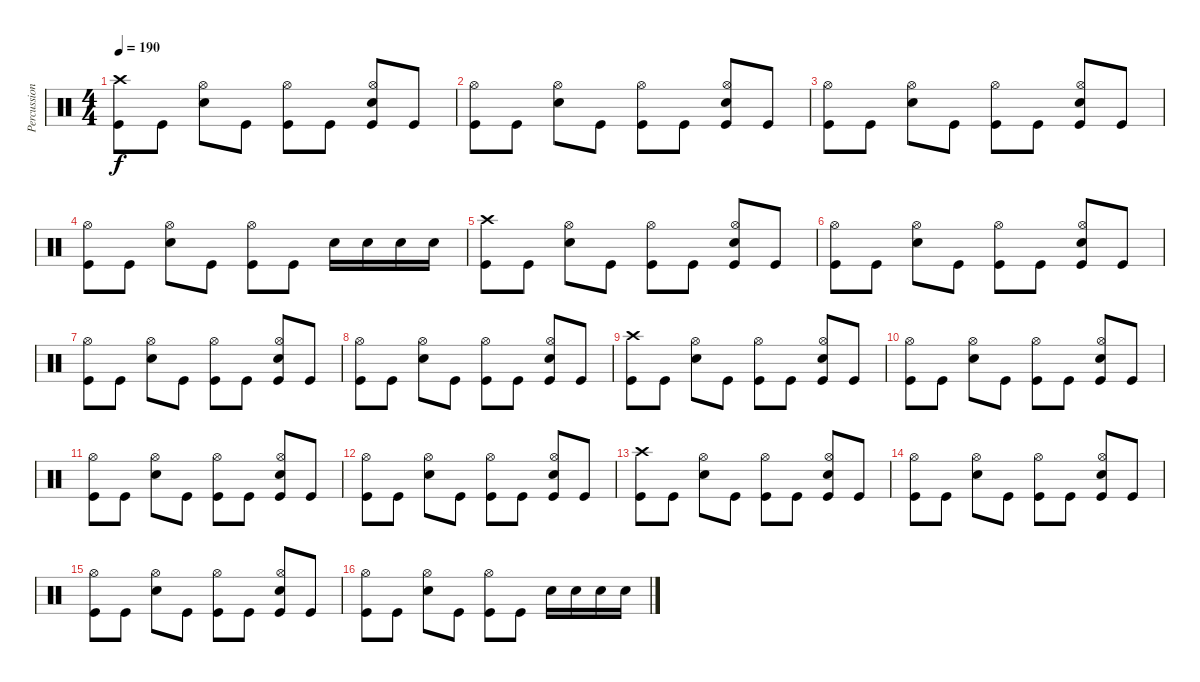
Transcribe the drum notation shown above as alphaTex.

\track ("Percussion" "Percussion") {instrument percussion}
\staff {score}
\articulation defaults
\ts (4 4)
\tempo 190
\clef neutral
\ks c
("Crash high (hit)" "Kick (hit)").8{dy f} "Kick (hit)".8 ("Hi-Hat (open)" "Snare (hit) 2").8 "Kick (hit)".8 ("Hi-Hat (open)" "Kick (hit)").8 "Kick (hit)".8 ("Hi-Hat (open)" "Snare (hit) 2" "Kick (hit)").8 "Kick (hit)".8 |
("Hi-Hat (open)" "Kick (hit)").8 "Kick (hit)".8 ("Hi-Hat (open)" "Snare (hit) 2").8 "Kick (hit)".8 ("Hi-Hat (open)" "Kick (hit)").8 "Kick (hit)".8 ("Hi-Hat (open)" "Snare (hit) 2" "Kick (hit)").8 "Kick (hit)".8 |
("Hi-Hat (open)" "Kick (hit)").8 "Kick (hit)".8 ("Hi-Hat (open)" "Snare (hit) 2").8 "Kick (hit)".8 ("Hi-Hat (open)" "Kick (hit)").8 "Kick (hit)".8 ("Hi-Hat (open)" "Snare (hit) 2" "Kick (hit)").8 "Kick (hit)".8 |
("Hi-Hat (open)" "Kick (hit)").8 "Kick (hit)".8 ("Hi-Hat (open)" "Snare (hit) 2").8 "Kick (hit)".8 ("Hi-Hat (open)" "Kick (hit)").8 "Kick (hit)".8 "Snare (hit) 2".16 "Snare (hit) 2".16 "Snare (hit) 2".16 "Snare (hit) 2".16 |
("Crash high (hit)" "Kick (hit)").8 "Kick (hit)".8 ("Hi-Hat (open)" "Snare (hit) 2").8 "Kick (hit)".8 ("Hi-Hat (open)" "Kick (hit)").8 "Kick (hit)".8 ("Hi-Hat (open)" "Snare (hit) 2" "Kick (hit)").8 "Kick (hit)".8 |
("Hi-Hat (open)" "Kick (hit)").8 "Kick (hit)".8 ("Hi-Hat (open)" "Snare (hit) 2").8 "Kick (hit)".8 ("Hi-Hat (open)" "Kick (hit)").8 "Kick (hit)".8 ("Hi-Hat (open)" "Snare (hit) 2" "Kick (hit)").8 "Kick (hit)".8 |
("Hi-Hat (open)" "Kick (hit)").8 "Kick (hit)".8 ("Hi-Hat (open)" "Snare (hit) 2").8 "Kick (hit)".8 ("Hi-Hat (open)" "Kick (hit)").8 "Kick (hit)".8 ("Hi-Hat (open)" "Snare (hit) 2" "Kick (hit)").8 "Kick (hit)".8 |
("Hi-Hat (open)" "Kick (hit)").8 "Kick (hit)".8 ("Hi-Hat (open)" "Snare (hit) 2").8 "Kick (hit)".8 ("Hi-Hat (open)" "Kick (hit)").8 "Kick (hit)".8 ("Hi-Hat (open)" "Snare (hit) 2" "Kick (hit)").8 "Kick (hit)".8 |
("Crash high (hit)" "Kick (hit)").8 "Kick (hit)".8 ("Hi-Hat (open)" "Snare (hit) 2").8 "Kick (hit)".8 ("Hi-Hat (open)" "Kick (hit)").8 "Kick (hit)".8 ("Hi-Hat (open)" "Snare (hit) 2" "Kick (hit)").8 "Kick (hit)".8 |
("Hi-Hat (open)" "Kick (hit)").8 "Kick (hit)".8 ("Hi-Hat (open)" "Snare (hit) 2").8 "Kick (hit)".8 ("Hi-Hat (open)" "Kick (hit)").8 "Kick (hit)".8 ("Hi-Hat (open)" "Snare (hit) 2" "Kick (hit)").8 "Kick (hit)".8 |
("Hi-Hat (open)" "Kick (hit)").8 "Kick (hit)".8 ("Hi-Hat (open)" "Snare (hit) 2").8 "Kick (hit)".8 ("Hi-Hat (open)" "Kick (hit)").8 "Kick (hit)".8 ("Hi-Hat (open)" "Snare (hit) 2" "Kick (hit)").8 "Kick (hit)".8 |
("Hi-Hat (open)" "Kick (hit)").8 "Kick (hit)".8 ("Hi-Hat (open)" "Snare (hit) 2").8 "Kick (hit)".8 ("Hi-Hat (open)" "Kick (hit)").8 "Kick (hit)".8 ("Hi-Hat (open)" "Snare (hit) 2" "Kick (hit)").8 "Kick (hit)".8 |
("Crash high (hit)" "Kick (hit)").8 "Kick (hit)".8 ("Hi-Hat (open)" "Snare (hit) 2").8 "Kick (hit)".8 ("Hi-Hat (open)" "Kick (hit)").8 "Kick (hit)".8 ("Hi-Hat (open)" "Snare (hit) 2" "Kick (hit)").8 "Kick (hit)".8 |
("Hi-Hat (open)" "Kick (hit)").8 "Kick (hit)".8 ("Hi-Hat (open)" "Snare (hit) 2").8 "Kick (hit)".8 ("Hi-Hat (open)" "Kick (hit)").8 "Kick (hit)".8 ("Hi-Hat (open)" "Snare (hit) 2" "Kick (hit)").8 "Kick (hit)".8 |
("Hi-Hat (open)" "Kick (hit)").8 "Kick (hit)".8 ("Hi-Hat (open)" "Snare (hit) 2").8 "Kick (hit)".8 ("Hi-Hat (open)" "Kick (hit)").8 "Kick (hit)".8 ("Hi-Hat (open)" "Snare (hit) 2" "Kick (hit)").8 "Kick (hit)".8 |
("Hi-Hat (open)" "Kick (hit)").8 "Kick (hit)".8 ("Hi-Hat (open)" "Snare (hit) 2").8 "Kick (hit)".8 ("Hi-Hat (open)" "Kick (hit)").8 "Kick (hit)".8 "Snare (hit) 2".16 "Snare (hit) 2".16 "Snare (hit) 2".16 "Snare (hit) 2".16
